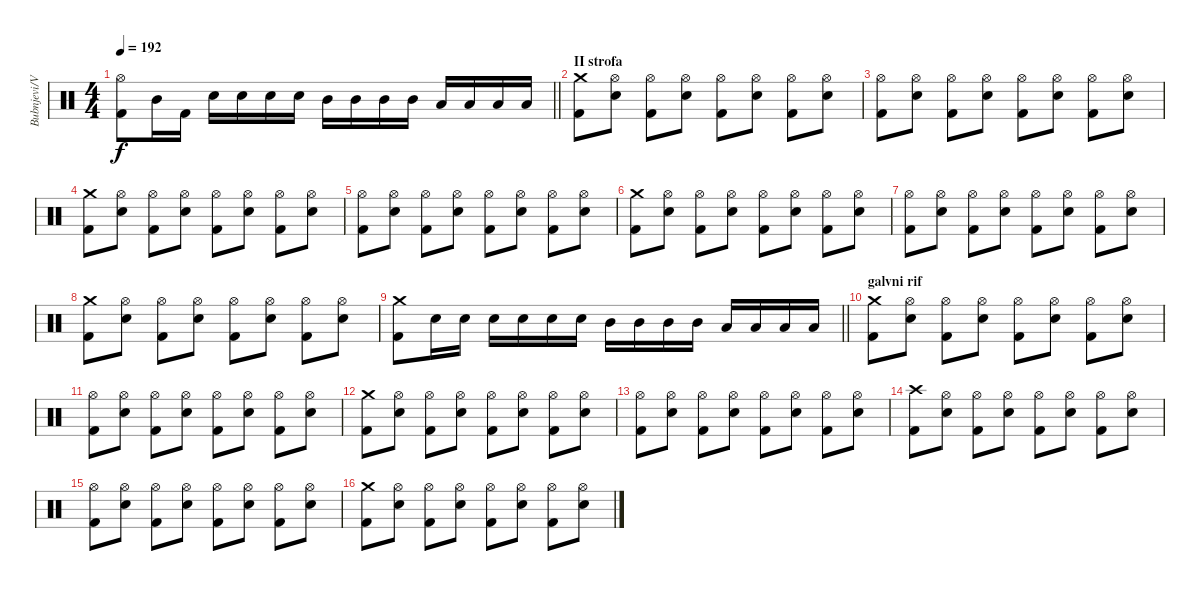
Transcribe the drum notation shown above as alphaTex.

\track ("Bubnjevi/Vestac Tlacitelj" "Bubnjevi/V") {instrument percussion}
\staff {score}
\articulation defaults
\ts (4 4)
\tempo 192
\clef neutral
\barLineRight lightlight
\ks c
("Hi-Hat (open)" "Kick (hit) 2").8{dy f} "Mid Tom (hit)".16 "Kick (hit) 2".16 "Electric Snare (hit)".16 "Electric Snare (hit)".16 "Electric Snare (hit)".16 "Electric Snare (hit)".16 "Mid Tom (hit)".16 "Mid Tom (hit)".16 "Mid Tom (hit)".16 "Mid Tom (hit)".16 "Low Tom (hit)".16 "Low Tom (hit)".16 "Low Tom (hit)".16 "Low Tom (hit)".16 |
\section ("" "II strofa")
("Crash medium (hit)" "Kick (hit) 2").8 ("Hi-Hat (open)" "Electric Snare (hit)").8 ("Hi-Hat (open)" "Kick (hit) 2").8 ("Hi-Hat (open)" "Electric Snare (hit)").8 ("Hi-Hat (open)" "Kick (hit) 2").8 ("Hi-Hat (open)" "Electric Snare (hit)").8 ("Hi-Hat (open)" "Kick (hit) 2").8 ("Hi-Hat (open)" "Electric Snare (hit)").8 |
("Hi-Hat (open)" "Kick (hit) 2").8 ("Hi-Hat (open)" "Electric Snare (hit)").8 ("Hi-Hat (open)" "Kick (hit) 2").8 ("Hi-Hat (open)" "Electric Snare (hit)").8 ("Hi-Hat (open)" "Kick (hit) 2").8 ("Hi-Hat (open)" "Electric Snare (hit)").8 ("Hi-Hat (open)" "Kick (hit) 2").8 ("Hi-Hat (open)" "Electric Snare (hit)").8 |
("Crash medium (hit)" "Kick (hit) 2").8 ("Hi-Hat (open)" "Electric Snare (hit)").8 ("Hi-Hat (open)" "Kick (hit) 2").8 ("Hi-Hat (open)" "Electric Snare (hit)").8 ("Hi-Hat (open)" "Kick (hit) 2").8 ("Hi-Hat (open)" "Electric Snare (hit)").8 ("Hi-Hat (open)" "Kick (hit) 2").8 ("Hi-Hat (open)" "Electric Snare (hit)").8 |
("Hi-Hat (open)" "Kick (hit) 2").8 ("Hi-Hat (open)" "Electric Snare (hit)").8 ("Hi-Hat (open)" "Kick (hit) 2").8 ("Hi-Hat (open)" "Electric Snare (hit)").8 ("Hi-Hat (open)" "Kick (hit) 2").8 ("Hi-Hat (open)" "Electric Snare (hit)").8 ("Hi-Hat (open)" "Kick (hit) 2").8 ("Hi-Hat (open)" "Electric Snare (hit)").8 |
("Crash medium (hit)" "Kick (hit) 2").8 ("Hi-Hat (open)" "Electric Snare (hit)").8 ("Hi-Hat (open)" "Kick (hit) 2").8 ("Hi-Hat (open)" "Electric Snare (hit)").8 ("Hi-Hat (open)" "Kick (hit) 2").8 ("Hi-Hat (open)" "Electric Snare (hit)").8 ("Hi-Hat (open)" "Kick (hit) 2").8 ("Hi-Hat (open)" "Electric Snare (hit)").8 |
("Hi-Hat (open)" "Kick (hit) 2").8 ("Hi-Hat (open)" "Electric Snare (hit)").8 ("Hi-Hat (open)" "Kick (hit) 2").8 ("Hi-Hat (open)" "Electric Snare (hit)").8 ("Hi-Hat (open)" "Kick (hit) 2").8 ("Hi-Hat (open)" "Electric Snare (hit)").8 ("Hi-Hat (open)" "Kick (hit) 2").8 ("Hi-Hat (open)" "Electric Snare (hit)").8 |
("Crash medium (hit)" "Kick (hit) 2").8 ("Hi-Hat (open)" "Electric Snare (hit)").8 ("Hi-Hat (open)" "Kick (hit) 2").8 ("Hi-Hat (open)" "Electric Snare (hit)").8 ("Hi-Hat (open)" "Kick (hit) 2").8 ("Hi-Hat (open)" "Electric Snare (hit)").8 ("Hi-Hat (open)" "Kick (hit) 2").8 ("Hi-Hat (open)" "Electric Snare (hit)").8 |
\barLineRight lightlight
("Crash medium (hit)" "Kick (hit) 2").8 "Electric Snare (hit)".16 "Electric Snare (hit)".16 "Electric Snare (hit)".16 "Electric Snare (hit)".16 "Electric Snare (hit)".16 "Electric Snare (hit)".16 "Mid Tom (hit)".16 "Mid Tom (hit)".16 "Mid Tom (hit)".16 "Mid Tom (hit)".16 "Low Tom (hit)".16 "Low Tom (hit)".16 "Low Tom (hit)".16 "Low Tom (hit)".16 |
\section ("" "galvni rif")
("Crash medium (hit)" "Kick (hit) 2").8 ("Hi-Hat (open)" "Electric Snare (hit)").8 ("Hi-Hat (open)" "Kick (hit) 2").8 ("Hi-Hat (open)" "Electric Snare (hit)").8 ("Hi-Hat (open)" "Kick (hit) 2").8 ("Hi-Hat (open)" "Electric Snare (hit)").8 ("Hi-Hat (open)" "Kick (hit) 2").8 ("Hi-Hat (open)" "Electric Snare (hit)").8 |
("Hi-Hat (open)" "Kick (hit) 2").8 ("Hi-Hat (open)" "Electric Snare (hit)").8 ("Hi-Hat (open)" "Kick (hit) 2").8 ("Hi-Hat (open)" "Electric Snare (hit)").8 ("Hi-Hat (open)" "Kick (hit) 2").8 ("Hi-Hat (open)" "Electric Snare (hit)").8 ("Hi-Hat (open)" "Kick (hit) 2").8 ("Hi-Hat (open)" "Electric Snare (hit)").8 |
("Crash medium (hit)" "Kick (hit) 2").8 ("Hi-Hat (open)" "Electric Snare (hit)").8 ("Hi-Hat (open)" "Kick (hit) 2").8 ("Hi-Hat (open)" "Electric Snare (hit)").8 ("Hi-Hat (open)" "Kick (hit) 2").8 ("Hi-Hat (open)" "Electric Snare (hit)").8 ("Hi-Hat (open)" "Kick (hit) 2").8 ("Hi-Hat (open)" "Electric Snare (hit)").8 |
("Hi-Hat (open)" "Kick (hit) 2").8 ("Hi-Hat (open)" "Electric Snare (hit)").8 ("Hi-Hat (open)" "Kick (hit) 2").8 ("Hi-Hat (open)" "Electric Snare (hit)").8 ("Hi-Hat (open)" "Kick (hit) 2").8 ("Hi-Hat (open)" "Electric Snare (hit)").8 ("Hi-Hat (open)" "Kick (hit) 2").8 ("Hi-Hat (open)" "Electric Snare (hit)").8 |
("Crash high (hit)" "Kick (hit) 2").8 ("Hi-Hat (open)" "Electric Snare (hit)").8 ("Hi-Hat (open)" "Kick (hit) 2").8 ("Hi-Hat (open)" "Electric Snare (hit)").8 ("Hi-Hat (open)" "Kick (hit) 2").8 ("Hi-Hat (open)" "Electric Snare (hit)").8 ("Hi-Hat (open)" "Kick (hit) 2").8 ("Hi-Hat (open)" "Electric Snare (hit)").8 |
("Hi-Hat (open)" "Kick (hit) 2").8 ("Hi-Hat (open)" "Electric Snare (hit)").8 ("Hi-Hat (open)" "Kick (hit) 2").8 ("Hi-Hat (open)" "Electric Snare (hit)").8 ("Hi-Hat (open)" "Kick (hit) 2").8 ("Hi-Hat (open)" "Electric Snare (hit)").8 ("Hi-Hat (open)" "Kick (hit) 2").8 ("Hi-Hat (open)" "Electric Snare (hit)").8 |
("Crash medium (hit)" "Kick (hit) 2").8 ("Hi-Hat (open)" "Electric Snare (hit)").8 ("Hi-Hat (open)" "Kick (hit) 2").8 ("Hi-Hat (open)" "Electric Snare (hit)").8 ("Hi-Hat (open)" "Kick (hit) 2").8 ("Hi-Hat (open)" "Electric Snare (hit)").8 ("Hi-Hat (open)" "Kick (hit) 2").8 ("Hi-Hat (open)" "Electric Snare (hit)").8
